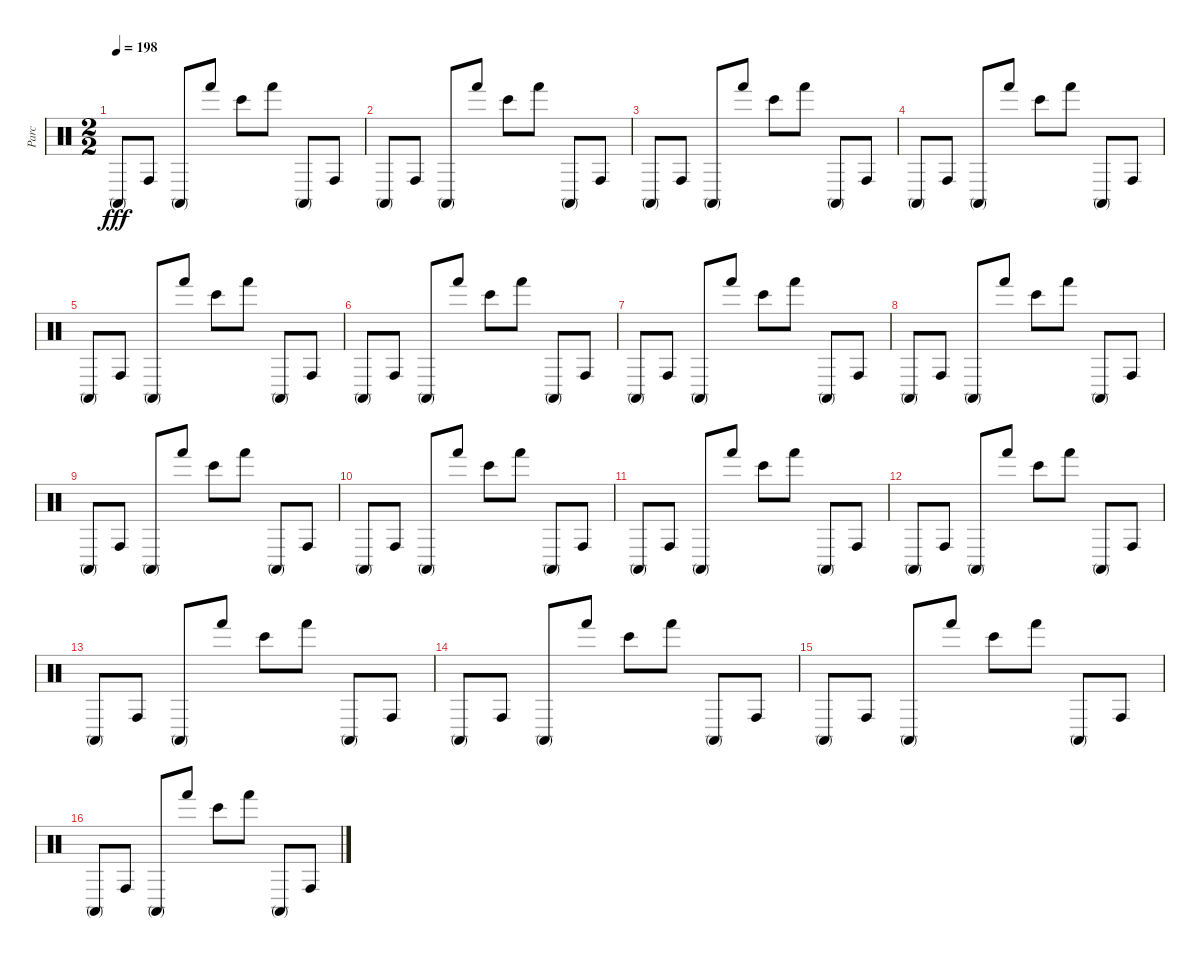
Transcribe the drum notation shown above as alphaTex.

\track ("Parc" "Parc") {instrument percussion}
\staff {score}
\articulation defaults
\ts (2 2)
\tempo 198
\clef neutral
\ks c "Conga high (mute)".8{dy fff} "Conga high (hit)".8 "Conga high (mute)".8 "Hand (hit)".8 "Bongo High (hit)".8 "Hand (hit)".8 "Conga high (mute)".8 "Conga high (hit)".8
|
"Conga high (mute)".8 "Conga high (hit)".8 "Conga high (mute)".8 "Hand (hit)".8 "Bongo High (hit)".8 "Hand (hit)".8 "Conga high (mute)".8 "Conga high (hit)".8 |
"Conga high (mute)".8 "Conga high (hit)".8 "Conga high (mute)".8 "Hand (hit)".8 "Bongo High (hit)".8 "Hand (hit)".8 "Conga high (mute)".8 "Conga high (hit)".8 |
"Conga high (mute)".8 "Conga high (hit)".8 "Conga high (mute)".8 "Hand (hit)".8 "Bongo High (hit)".8 "Hand (hit)".8 "Conga high (mute)".8 "Conga high (hit)".8 |
"Conga high (mute)".8 "Conga high (hit)".8 "Conga high (mute)".8 "Hand (hit)".8 "Bongo High (hit)".8 "Hand (hit)".8 "Conga high (mute)".8 "Conga high (hit)".8 |
"Conga high (mute)".8 "Conga high (hit)".8 "Conga high (mute)".8 "Hand (hit)".8 "Bongo High (hit)".8 "Hand (hit)".8 "Conga high (mute)".8 "Conga high (hit)".8 |
"Conga high (mute)".8 "Conga high (hit)".8 "Conga high (mute)".8 "Hand (hit)".8 "Bongo High (hit)".8 "Hand (hit)".8 "Conga high (mute)".8 "Conga high (hit)".8 |
"Conga high (mute)".8 "Conga high (hit)".8 "Conga high (mute)".8 "Hand (hit)".8 "Bongo High (hit)".8 "Hand (hit)".8 "Conga high (mute)".8 "Conga high (hit)".8 |
"Conga high (mute)".8 "Conga high (hit)".8 "Conga high (mute)".8 "Hand (hit)".8 "Bongo High (hit)".8 "Hand (hit)".8 "Conga high (mute)".8 "Conga high (hit)".8 |
"Conga high (mute)".8 "Conga high (hit)".8 "Conga high (mute)".8 "Hand (hit)".8 "Bongo High (hit)".8 "Hand (hit)".8 "Conga high (mute)".8 "Conga high (hit)".8 |
"Conga high (mute)".8 "Conga high (hit)".8 "Conga high (mute)".8 "Hand (hit)".8 "Bongo High (hit)".8 "Hand (hit)".8 "Conga high (mute)".8 "Conga high (hit)".8 |
"Conga high (mute)".8 "Conga high (hit)".8 "Conga high (mute)".8 "Hand (hit)".8 "Bongo High (hit)".8 "Hand (hit)".8 "Conga high (mute)".8 "Conga high (hit)".8 |
"Conga high (mute)".8 "Conga high (hit)".8 "Conga high (mute)".8 "Hand (hit)".8 "Bongo High (hit)".8 "Hand (hit)".8 "Conga high (mute)".8 "Conga high (hit)".8 |
"Conga high (mute)".8 "Conga high (hit)".8 "Conga high (mute)".8 "Hand (hit)".8 "Bongo High (hit)".8 "Hand (hit)".8 "Conga high (mute)".8 "Conga high (hit)".8 |
"Conga high (mute)".8 "Conga high (hit)".8 "Conga high (mute)".8 "Hand (hit)".8 "Bongo High (hit)".8 "Hand (hit)".8 "Conga high (mute)".8 "Conga high (hit)".8 |
"Conga high (mute)".8 "Conga high (hit)".8 "Conga high (mute)".8 "Hand (hit)".8 "Bongo High (hit)".8 "Hand (hit)".8 "Conga high (mute)".8 "Conga high (hit)".8
